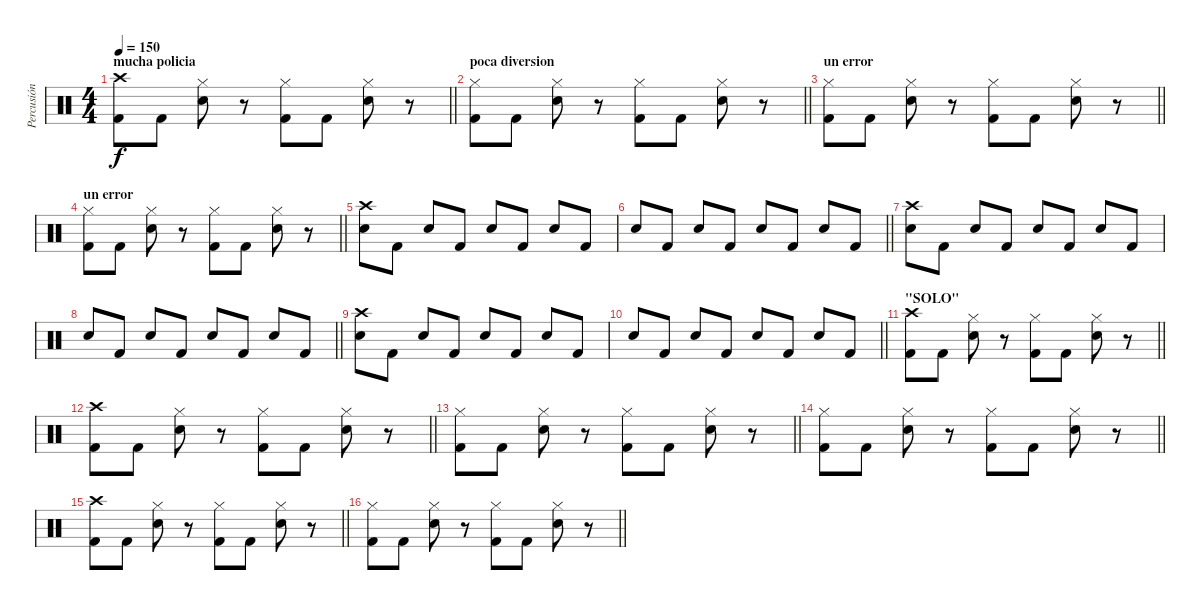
\track ("Percusión" "Percusión") {instrument percussion}
\staff {score}
\articulation defaults
\ts (4 4)
\section ("" "mucha policia")
\tempo 150
\clef neutral
\barLineRight lightlight
\ks c
("Crash high (hit)" "Kick (hit) 2").8{dy f} "Kick (hit) 2".8 ("Hi-Hat (closed)" "Electric Snare (hit)").8 r.8 ("Hi-Hat (closed)" "Kick (hit) 2").8 "Kick (hit) 2".8 ("Hi-Hat (closed)" "Electric Snare (hit)").8 r.8 |
\section ("" "poca diversion")
\barLineRight lightlight
("Hi-Hat (closed)" "Kick (hit) 2").8 "Kick (hit) 2".8 ("Hi-Hat (closed)" "Electric Snare (hit)").8 r.8 ("Hi-Hat (closed)" "Kick (hit) 2").8 "Kick (hit) 2".8 ("Hi-Hat (closed)" "Electric Snare (hit)").8 r.8 |
\section ("" "un error")
\barLineRight lightlight
("Hi-Hat (closed)" "Kick (hit) 2").8 "Kick (hit) 2".8 ("Hi-Hat (closed)" "Electric Snare (hit)").8 r.8 ("Hi-Hat (closed)" "Kick (hit) 2").8 "Kick (hit) 2".8 ("Hi-Hat (closed)" "Electric Snare (hit)").8 r.8 |
\section ("" "un error")
\barLineRight lightlight
("Hi-Hat (closed)" "Kick (hit) 2").8 "Kick (hit) 2".8 ("Hi-Hat (closed)" "Electric Snare (hit)").8 r.8 ("Hi-Hat (closed)" "Kick (hit) 2").8 "Kick (hit) 2".8 ("Hi-Hat (closed)" "Electric Snare (hit)").8 r.8 |
("Crash high (hit)" "Electric Snare (hit)").8 "Kick (hit) 2".8 "Electric Snare (hit)".8 "Kick (hit) 2".8 "Electric Snare (hit)".8 "Kick (hit) 2".8 "Electric Snare (hit)".8 "Kick (hit) 2".8 |
\barLineRight lightlight "Electric Snare (hit)".8 "Kick (hit) 2".8 "Electric Snare (hit)".8 "Kick (hit) 2".8 "Electric Snare (hit)".8 "Kick (hit) 2".8 "Electric Snare (hit)".8 "Kick (hit) 2".8
|
("Crash high (hit)" "Electric Snare (hit)").8 "Kick (hit) 2".8 "Electric Snare (hit)".8 "Kick (hit) 2".8 "Electric Snare (hit)".8 "Kick (hit) 2".8 "Electric Snare (hit)".8 "Kick (hit) 2".8 |
\barLineRight lightlight "Electric Snare (hit)".8 "Kick (hit) 2".8 "Electric Snare (hit)".8 "Kick (hit) 2".8 "Electric Snare (hit)".8 "Kick (hit) 2".8 "Electric Snare (hit)".8 "Kick (hit) 2".8
|
("Crash high (hit)" "Electric Snare (hit)").8 "Kick (hit) 2".8 "Electric Snare (hit)".8 "Kick (hit) 2".8 "Electric Snare (hit)".8 "Kick (hit) 2".8 "Electric Snare (hit)".8 "Kick (hit) 2".8 |
\barLineRight lightlight "Electric Snare (hit)".8 "Kick (hit) 2".8 "Electric Snare (hit)".8 "Kick (hit) 2".8 "Electric Snare (hit)".8 "Kick (hit) 2".8 "Electric Snare (hit)".8 "Kick (hit) 2".8
|
\section ("" "\"SOLO\"")
\barLineRight lightlight
("Crash high (hit)" "Kick (hit) 2").8 "Kick (hit) 2".8 ("Hi-Hat (closed)" "Electric Snare (hit)").8 r.8 ("Hi-Hat (closed)" "Kick (hit) 2").8 "Kick (hit) 2".8 ("Hi-Hat (closed)" "Electric Snare (hit)").8 r.8 |
\barLineRight lightlight
("Crash high (hit)" "Kick (hit) 2").8 "Kick (hit) 2".8 ("Hi-Hat (closed)" "Electric Snare (hit)").8 r.8 ("Hi-Hat (closed)" "Kick (hit) 2").8 "Kick (hit) 2".8 ("Hi-Hat (closed)" "Electric Snare (hit)").8 r.8 |
\barLineRight lightlight
("Hi-Hat (closed)" "Kick (hit) 2").8 "Kick (hit) 2".8 ("Hi-Hat (closed)" "Electric Snare (hit)").8 r.8 ("Hi-Hat (closed)" "Kick (hit) 2").8 "Kick (hit) 2".8 ("Hi-Hat (closed)" "Electric Snare (hit)").8 r.8 |
\barLineRight lightlight
("Hi-Hat (closed)" "Kick (hit) 2").8 "Kick (hit) 2".8 ("Hi-Hat (closed)" "Electric Snare (hit)").8 r.8 ("Hi-Hat (closed)" "Kick (hit) 2").8 "Kick (hit) 2".8 ("Hi-Hat (closed)" "Electric Snare (hit)").8 r.8 |
\barLineRight lightlight
("Crash high (hit)" "Kick (hit) 2").8 "Kick (hit) 2".8 ("Hi-Hat (closed)" "Electric Snare (hit)").8 r.8 ("Hi-Hat (closed)" "Kick (hit) 2").8 "Kick (hit) 2".8 ("Hi-Hat (closed)" "Electric Snare (hit)").8 r.8 |
\barLineRight lightlight
("Hi-Hat (closed)" "Kick (hit) 2").8 "Kick (hit) 2".8 ("Hi-Hat (closed)" "Electric Snare (hit)").8 r.8 ("Hi-Hat (closed)" "Kick (hit) 2").8 "Kick (hit) 2".8 ("Hi-Hat (closed)" "Electric Snare (hit)").8 r.8
